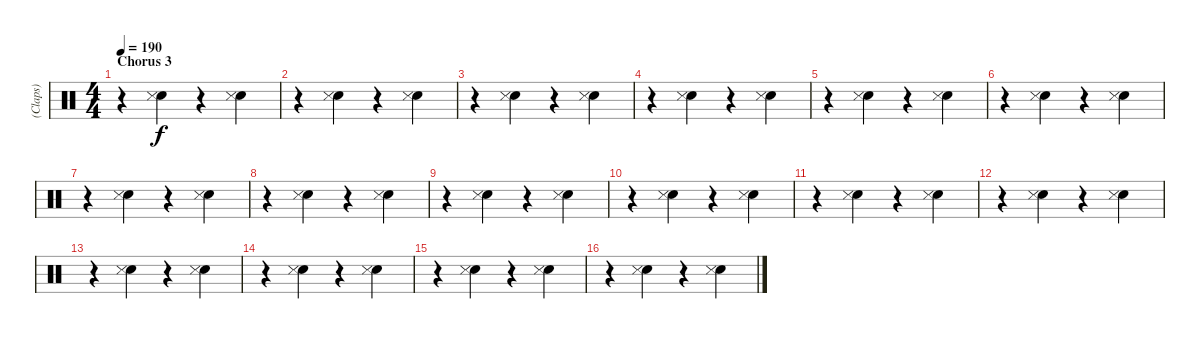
\track ("(Claps)" "(Claps)") {instrument percussion}
\staff {score}
\articulation defaults
\ts (4 4)
\section ("" "Chorus 3")
\tempo 190
\clef neutral
\ks c
r.4{dy f} ("Hand Clap (hit)" "Snare (side stick) 3").4 r.4 ("Hand Clap (hit)" "Snare (side stick) 3").4 |
r.4 ("Hand Clap (hit)" "Snare (side stick) 3").4 r.4 ("Hand Clap (hit)" "Snare (side stick) 3").4 |
r.4 ("Hand Clap (hit)" "Snare (side stick) 3").4 r.4 ("Hand Clap (hit)" "Snare (side stick) 3").4 |
r.4 ("Hand Clap (hit)" "Snare (side stick) 3").4 r.4 ("Hand Clap (hit)" "Snare (side stick) 3").4 |
r.4 ("Hand Clap (hit)" "Snare (side stick) 3").4 r.4 ("Hand Clap (hit)" "Snare (side stick) 3").4 |
r.4 ("Hand Clap (hit)" "Snare (side stick) 3").4 r.4 ("Hand Clap (hit)" "Snare (side stick) 3").4 |
r.4 ("Hand Clap (hit)" "Snare (side stick) 3").4 r.4 ("Hand Clap (hit)" "Snare (side stick) 3").4 |
r.4 ("Hand Clap (hit)" "Snare (side stick) 3").4 r.4 ("Hand Clap (hit)" "Snare (side stick) 3").4 |
r.4 ("Hand Clap (hit)" "Snare (side stick) 3").4 r.4 ("Hand Clap (hit)" "Snare (side stick) 3").4 |
r.4 ("Hand Clap (hit)" "Snare (side stick) 3").4 r.4 ("Hand Clap (hit)" "Snare (side stick) 3").4 |
r.4 ("Hand Clap (hit)" "Snare (side stick) 3").4 r.4 ("Hand Clap (hit)" "Snare (side stick) 3").4 |
r.4 ("Hand Clap (hit)" "Snare (side stick) 3").4 r.4 ("Hand Clap (hit)" "Snare (side stick) 3").4 |
r.4 ("Hand Clap (hit)" "Snare (side stick) 3").4 r.4 ("Hand Clap (hit)" "Snare (side stick) 3").4 |
r.4 ("Hand Clap (hit)" "Snare (side stick) 3").4 r.4 ("Hand Clap (hit)" "Snare (side stick) 3").4 |
r.4 ("Hand Clap (hit)" "Snare (side stick) 3").4 r.4 ("Hand Clap (hit)" "Snare (side stick) 3").4 |
r.4 ("Hand Clap (hit)" "Snare (side stick) 3").4 r.4 ("Hand Clap (hit)" "Snare (side stick) 3").4
